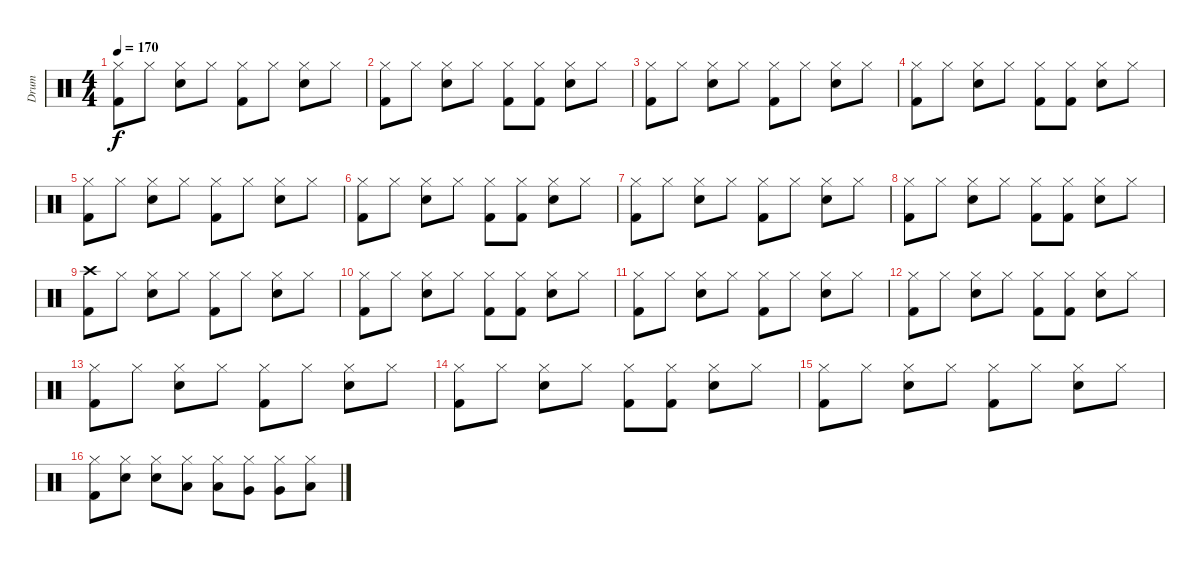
\track ("Drum" "Drum") {instrument percussion}
\staff {score}
\articulation defaults
\ts (4 4)
\tempo 170
\clef neutral
\ks c
("Hi-Hat (closed)" "Kick (hit) 2").8{dy f} "Hi-Hat (closed)".8 ("Hi-Hat (closed)" "Snare (hit) 2").8 "Hi-Hat (closed)".8 ("Hi-Hat (closed)" "Kick (hit) 2").8 "Hi-Hat (closed)".8 ("Hi-Hat (closed)" "Snare (hit) 2").8 "Hi-Hat (closed)".8 |
("Hi-Hat (closed)" "Kick (hit) 2").8 "Hi-Hat (closed)".8 ("Hi-Hat (closed)" "Snare (hit) 2").8 "Hi-Hat (closed)".8 ("Hi-Hat (closed)" "Kick (hit) 2").8 ("Hi-Hat (closed)" "Kick (hit) 2").8 ("Hi-Hat (closed)" "Snare (hit) 2").8 "Hi-Hat (closed)".8 |
("Hi-Hat (closed)" "Kick (hit) 2").8 "Hi-Hat (closed)".8 ("Hi-Hat (closed)" "Snare (hit) 2").8 "Hi-Hat (closed)".8 ("Hi-Hat (closed)" "Kick (hit) 2").8 "Hi-Hat (closed)".8 ("Hi-Hat (closed)" "Snare (hit) 2").8 "Hi-Hat (closed)".8 |
("Hi-Hat (closed)" "Kick (hit) 2").8 "Hi-Hat (closed)".8 ("Hi-Hat (closed)" "Snare (hit) 2").8 "Hi-Hat (closed)".8 ("Hi-Hat (closed)" "Kick (hit) 2").8 ("Hi-Hat (closed)" "Kick (hit) 2").8 ("Hi-Hat (closed)" "Snare (hit) 2").8 "Hi-Hat (closed)".8 |
("Hi-Hat (closed)" "Kick (hit) 2").8 "Hi-Hat (closed)".8 ("Hi-Hat (closed)" "Snare (hit) 2").8 "Hi-Hat (closed)".8 ("Hi-Hat (closed)" "Kick (hit) 2").8 "Hi-Hat (closed)".8 ("Hi-Hat (closed)" "Snare (hit) 2").8 "Hi-Hat (closed)".8 |
("Hi-Hat (closed)" "Kick (hit) 2").8 "Hi-Hat (closed)".8 ("Hi-Hat (closed)" "Snare (hit) 2").8 "Hi-Hat (closed)".8 ("Hi-Hat (closed)" "Kick (hit) 2").8 ("Hi-Hat (closed)" "Kick (hit) 2").8 ("Hi-Hat (closed)" "Snare (hit) 2").8 "Hi-Hat (closed)".8 |
("Hi-Hat (closed)" "Kick (hit) 2").8 "Hi-Hat (closed)".8 ("Hi-Hat (closed)" "Snare (hit) 2").8 "Hi-Hat (closed)".8 ("Hi-Hat (closed)" "Kick (hit) 2").8 "Hi-Hat (closed)".8 ("Hi-Hat (closed)" "Snare (hit) 2").8 "Hi-Hat (closed)".8 |
("Hi-Hat (closed)" "Kick (hit) 2").8 "Hi-Hat (closed)".8 ("Hi-Hat (closed)" "Snare (hit) 2").8 "Hi-Hat (closed)".8 ("Hi-Hat (closed)" "Kick (hit) 2").8 ("Hi-Hat (closed)" "Kick (hit) 2").8 ("Hi-Hat (closed)" "Snare (hit) 2").8 "Hi-Hat (closed)".8 |
("Crash high (hit)" "Kick (hit) 2").8 "Hi-Hat (closed)".8 ("Hi-Hat (closed)" "Snare (hit) 2").8 "Hi-Hat (closed)".8 ("Hi-Hat (closed)" "Kick (hit) 2").8 "Hi-Hat (closed)".8 ("Hi-Hat (closed)" "Snare (hit) 2").8 "Hi-Hat (closed)".8 |
("Hi-Hat (closed)" "Kick (hit) 2").8 "Hi-Hat (closed)".8 ("Hi-Hat (closed)" "Snare (hit) 2").8 "Hi-Hat (closed)".8 ("Hi-Hat (closed)" "Kick (hit) 2").8 ("Hi-Hat (closed)" "Kick (hit) 2").8 ("Hi-Hat (closed)" "Snare (hit) 2").8 "Hi-Hat (closed)".8 |
("Hi-Hat (closed)" "Kick (hit) 2").8 "Hi-Hat (closed)".8 ("Hi-Hat (closed)" "Snare (hit) 2").8 "Hi-Hat (closed)".8 ("Hi-Hat (closed)" "Kick (hit) 2").8 "Hi-Hat (closed)".8 ("Hi-Hat (closed)" "Snare (hit) 2").8 "Hi-Hat (closed)".8 |
("Hi-Hat (closed)" "Kick (hit) 2").8 "Hi-Hat (closed)".8 ("Hi-Hat (closed)" "Snare (hit) 2").8 "Hi-Hat (closed)".8 ("Hi-Hat (closed)" "Kick (hit) 2").8 ("Hi-Hat (closed)" "Kick (hit) 2").8 ("Hi-Hat (closed)" "Snare (hit) 2").8 "Hi-Hat (closed)".8 |
("Hi-Hat (closed)" "Kick (hit) 2").8 "Hi-Hat (closed)".8 ("Hi-Hat (closed)" "Snare (hit) 2").8 "Hi-Hat (closed)".8 ("Hi-Hat (closed)" "Kick (hit) 2").8 "Hi-Hat (closed)".8 ("Hi-Hat (closed)" "Snare (hit) 2").8 "Hi-Hat (closed)".8 |
("Hi-Hat (closed)" "Kick (hit) 2").8 "Hi-Hat (closed)".8 ("Hi-Hat (closed)" "Snare (hit) 2").8 "Hi-Hat (closed)".8 ("Hi-Hat (closed)" "Kick (hit) 2").8 ("Hi-Hat (closed)" "Kick (hit) 2").8 ("Hi-Hat (closed)" "Snare (hit) 2").8 "Hi-Hat (closed)".8 |
("Hi-Hat (closed)" "Kick (hit) 2").8 "Hi-Hat (closed)".8 ("Hi-Hat (closed)" "Snare (hit) 2").8 "Hi-Hat (closed)".8 ("Hi-Hat (closed)" "Kick (hit) 2").8 "Hi-Hat (closed)".8 ("Hi-Hat (closed)" "Snare (hit) 2").8 "Hi-Hat (closed)".8 |
("Hi-Hat (closed)" "Kick (hit) 2").8 ("Hi-Hat (closed)" "Snare (hit) 2").8 ("Hi-Hat (closed)" "Snare (hit) 2").8 ("Hi-Hat (closed)" "Low Tom (hit)").8 ("Hi-Hat (closed)" "Low Tom (hit)").8 ("Hi-Hat (closed)" "Very Low Tom (hit)").8 ("Hi-Hat (closed)" "Very Low Tom (hit)").8 ("Hi-Hat (closed)" "Low Floor Tom (hit)").8
